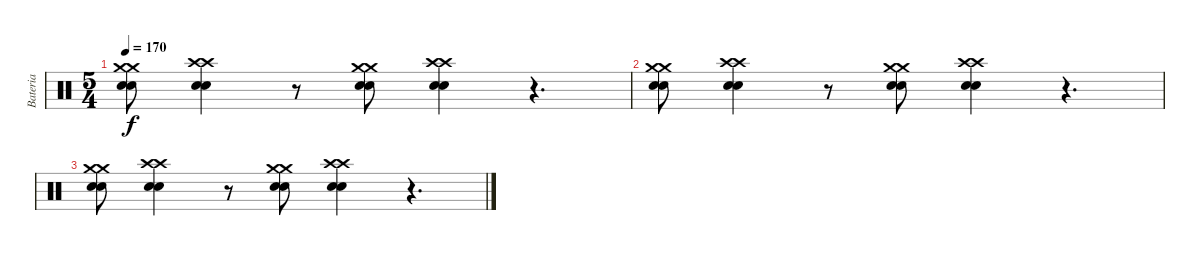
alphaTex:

\track ("Bateria" "Bateria") {instrument percussion}
\staff {score}
\articulation defaults
\ts (5 4)
\tempo 170
\clef neutral
\ks c
("Crash medium (hit)" "Crash medium (hit)" "Snare (hit) 2" "Snare (hit) 2").8{dy f} ("Crash high (hit)" "Crash high (hit)" "Snare (hit) 2" "Snare (hit) 2").4 r.8 ("Crash medium (hit)" "Crash medium (hit)" "Snare (hit) 2" "Snare (hit) 2").8 ("Crash high (hit)" "Crash high (hit)" "Snare (hit) 2" "Snare (hit) 2").4 r.4{d} |
("Crash medium (hit)" "Crash medium (hit)" "Snare (hit) 2" "Snare (hit) 2").8 ("Crash high (hit)" "Crash high (hit)" "Snare (hit) 2" "Snare (hit) 2").4 r.8 ("Crash medium (hit)" "Crash medium (hit)" "Snare (hit) 2" "Snare (hit) 2").8 ("Crash high (hit)" "Crash high (hit)" "Snare (hit) 2" "Snare (hit) 2").4 r.4{d} |
("Crash medium (hit)" "Crash medium (hit)" "Snare (hit) 2" "Snare (hit) 2").8 ("Crash high (hit)" "Crash high (hit)" "Snare (hit) 2" "Snare (hit) 2").4 r.8 ("Crash medium (hit)" "Crash medium (hit)" "Snare (hit) 2" "Snare (hit) 2").8 ("Crash high (hit)" "Crash high (hit)" "Snare (hit) 2" "Snare (hit) 2").4 r.4{d}
